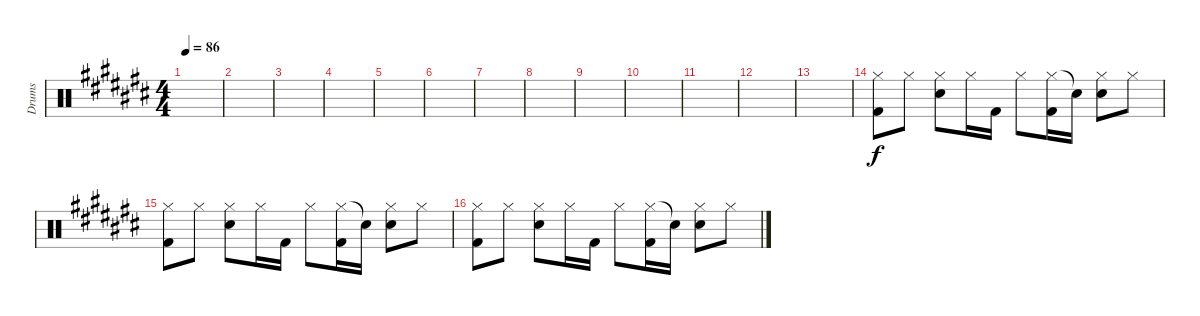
\track ("Drums" "Drums") {instrument percussion}
\staff {score}
\articulation defaults
\ts (4 4)
\tempo 86
\clef neutral
\ks c#
|
|
|
|
|
|
|
|
|
|
|
|
|
("Hi-Hat (closed)" "Kick (hit) 2").8 "Hi-Hat (closed)".8 ("Hi-Hat (closed)" "Electric Snare (hit)").8 "Hi-Hat (closed)".16 "Kick (hit) 2".16 "Hi-Hat (closed)".8 ("Hi-Hat (closed)" "Kick (hit) 2").16 "Snare (hit)"{t}.16 ("Hi-Hat (closed)" "Electric Snare (hit)").8 "Hi-Hat (closed)".8 |
("Hi-Hat (closed)" "Kick (hit) 2").8 "Hi-Hat (closed)".8 ("Hi-Hat (closed)" "Electric Snare (hit)").8 "Hi-Hat (closed)".16 "Kick (hit) 2".16 "Hi-Hat (closed)".8 ("Hi-Hat (closed)" "Kick (hit) 2").16 "Snare (hit)"{t}.16 ("Hi-Hat (closed)" "Electric Snare (hit)").8 "Hi-Hat (closed)".8 |
("Hi-Hat (closed)" "Kick (hit) 2").8 "Hi-Hat (closed)".8 ("Hi-Hat (closed)" "Electric Snare (hit)").8 "Hi-Hat (closed)".16 "Kick (hit) 2".16 "Hi-Hat (closed)".8 ("Hi-Hat (closed)" "Kick (hit) 2").16 "Snare (hit)"{t}.16 ("Hi-Hat (closed)" "Electric Snare (hit)").8 "Hi-Hat (closed)".8
